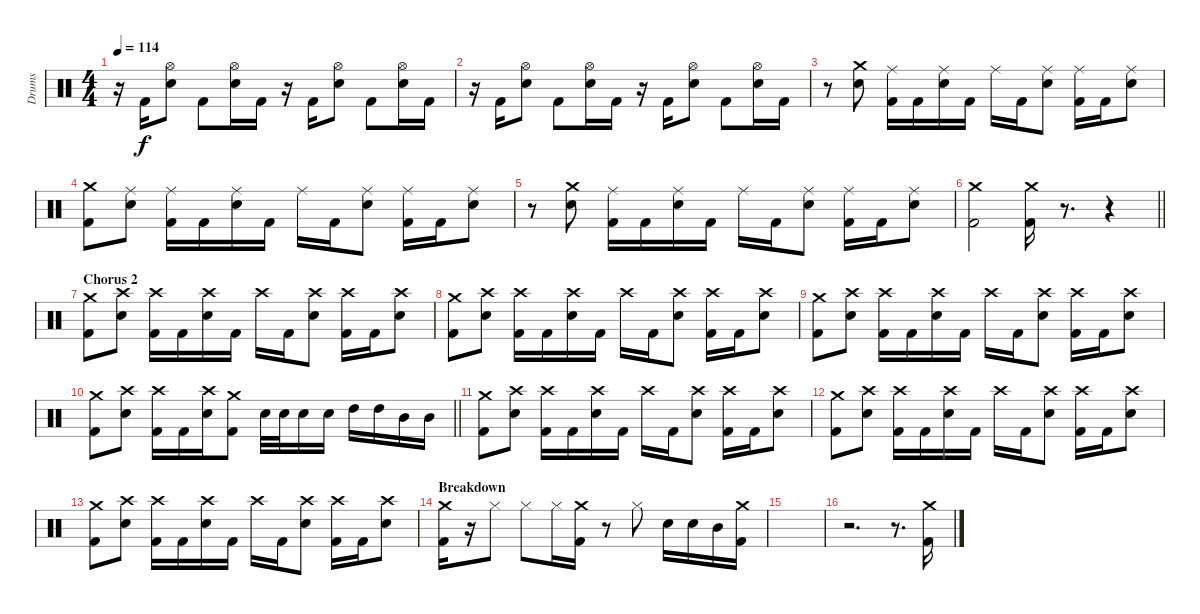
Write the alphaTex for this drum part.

\track ("Drums" "Drums") {instrument percussion}
\staff {score}
\articulation defaults
\ts (4 4)
\tempo 114
\clef neutral
\ks c
r.16{dy f} "Kick (hit) 2".16 ("Hi-Hat (open)" "Electric Snare (hit)").8 "Kick (hit) 2".8 ("Hi-Hat (open)" "Electric Snare (hit)").16 "Kick (hit) 2".16 r.16 "Kick (hit) 2".16 ("Hi-Hat (open)" "Electric Snare (hit)").8 "Kick (hit) 2".8 ("Hi-Hat (open)" "Electric Snare (hit)").16 "Kick (hit) 2".16 |
r.16 "Kick (hit) 2".16 ("Hi-Hat (open)" "Electric Snare (hit)").8 "Kick (hit) 2".8 ("Hi-Hat (open)" "Electric Snare (hit)").16 "Kick (hit) 2".16 r.16 "Kick (hit) 2".16 ("Hi-Hat (open)" "Electric Snare (hit)").8 "Kick (hit) 2".8 ("Hi-Hat (open)" "Electric Snare (hit)").16 "Kick (hit) 2".16 |
r.8 ("Crash medium (hit)" "Electric Snare (hit)").8 ("Ride (middle)" "Kick (hit) 2").16 "Kick (hit) 2".16 ("Ride (middle)" "Electric Snare (hit)").16 "Kick (hit) 2".16 "Ride (middle)".16 "Kick (hit) 2".16 ("Ride (middle)" "Electric Snare (hit)").8 ("Ride (middle)" "Kick (hit) 2").16 "Kick (hit) 2".16 ("Ride (middle)" "Electric Snare (hit)").8 |
("Crash medium (hit)" "Kick (hit) 2").8 ("Ride (middle)" "Electric Snare (hit)").8 ("Ride (middle)" "Kick (hit) 2").16 "Kick (hit) 2".16 ("Ride (middle)" "Electric Snare (hit)").16 "Kick (hit) 2".16 "Ride (middle)".16 "Kick (hit) 2".16 ("Ride (middle)" "Electric Snare (hit)").8 ("Ride (middle)" "Kick (hit) 2").16 "Kick (hit) 2".16 ("Ride (middle)" "Electric Snare (hit)").8 |
r.8 ("Crash medium (hit)" "Electric Snare (hit)").8 ("Ride (middle)" "Kick (hit) 2").16 "Kick (hit) 2".16 ("Ride (middle)" "Electric Snare (hit)").16 "Kick (hit) 2".16 "Ride (middle)".16 "Kick (hit) 2".16 ("Ride (middle)" "Electric Snare (hit)").8 ("Ride (middle)" "Kick (hit) 2").16 "Kick (hit) 2".16 ("Ride (middle)" "Electric Snare (hit)").8 |
\barLineRight lightlight
("Crash medium (hit)" "Kick (hit) 2").2 ("Crash medium (hit)" "Kick (hit) 2").16 r.8{d} r.4 |
\section ("" "Chorus 2")
("Crash medium (hit)" "Kick (hit) 2").8 ("Crash high (hit)" "Electric Snare (hit)").8 ("Crash high (hit)" "Kick (hit) 2").16 "Kick (hit) 2".16 ("Crash high (hit)" "Electric Snare (hit)").16 "Kick (hit) 2".16 "Crash high (hit)".16 "Kick (hit) 2".16 ("Crash high (hit)" "Electric Snare (hit)").8 ("Crash high (hit)" "Kick (hit) 2").16 "Kick (hit) 2".16 ("Crash high (hit)" "Electric Snare (hit)").8 |
("Crash medium (hit)" "Kick (hit) 2").8 ("Crash high (hit)" "Electric Snare (hit)").8 ("Crash high (hit)" "Kick (hit) 2").16 "Kick (hit) 2".16 ("Crash high (hit)" "Electric Snare (hit)").16 "Kick (hit) 2".16 "Crash high (hit)".16 "Kick (hit) 2".16 ("Crash high (hit)" "Electric Snare (hit)").8 ("Crash high (hit)" "Kick (hit) 2").16 "Kick (hit) 2".16 ("Crash high (hit)" "Electric Snare (hit)").8 |
("Crash medium (hit)" "Kick (hit) 2").8 ("Crash high (hit)" "Electric Snare (hit)").8 ("Crash high (hit)" "Kick (hit) 2").16 "Kick (hit) 2".16 ("Crash high (hit)" "Electric Snare (hit)").16 "Kick (hit) 2".16 "Crash high (hit)".16 "Kick (hit) 2".16 ("Crash high (hit)" "Electric Snare (hit)").8 ("Crash high (hit)" "Kick (hit) 2").16 "Kick (hit) 2".16 ("Crash high (hit)" "Electric Snare (hit)").8 |
\barLineRight lightlight
("Crash medium (hit)" "Kick (hit) 2").8 ("Crash high (hit)" "Electric Snare (hit)").8 ("Crash high (hit)" "Kick (hit) 2").16 "Kick (hit) 2".16 ("Crash high (hit)" "Electric Snare (hit)").16 ("Crash medium (hit)" "Kick (hit) 2").8 "Electric Snare (hit)".32 "Electric Snare (hit)".32 "Electric Snare (hit)".16 "Electric Snare (hit)".16 "High Tom (hit)".16 "High Tom (hit)".16 "Mid Tom (hit)".16 "Mid Tom (hit)".16 |
("Crash medium (hit)" "Kick (hit) 2").8 ("Crash high (hit)" "Electric Snare (hit)").8 ("Crash high (hit)" "Kick (hit) 2").16 "Kick (hit) 2".16 ("Crash high (hit)" "Electric Snare (hit)").16 "Kick (hit) 2".16 "Crash high (hit)".16 "Kick (hit) 2".16 ("Crash high (hit)" "Electric Snare (hit)").8 ("Crash high (hit)" "Kick (hit) 2").16 "Kick (hit) 2".16 ("Crash high (hit)" "Electric Snare (hit)").8 |
("Crash medium (hit)" "Kick (hit) 2").8 ("Crash high (hit)" "Electric Snare (hit)").8 ("Crash high (hit)" "Kick (hit) 2").16 "Kick (hit) 2".16 ("Crash high (hit)" "Electric Snare (hit)").16 "Kick (hit) 2".16 "Crash high (hit)".16 "Kick (hit) 2".16 ("Crash high (hit)" "Electric Snare (hit)").8 ("Crash high (hit)" "Kick (hit) 2").16 "Kick (hit) 2".16 ("Crash high (hit)" "Electric Snare (hit)").8 |
("Crash medium (hit)" "Kick (hit) 2").8 ("Crash high (hit)" "Electric Snare (hit)").8 ("Crash high (hit)" "Kick (hit) 2").16 "Kick (hit) 2".16 ("Crash high (hit)" "Electric Snare (hit)").16 "Kick (hit) 2".16 "Crash high (hit)".16 "Kick (hit) 2".16 ("Crash high (hit)" "Electric Snare (hit)").8 ("Crash high (hit)" "Kick (hit) 2").16 "Kick (hit) 2".16 ("Crash high (hit)" "Electric Snare (hit)").8 |
\section ("" "Breakdown")
("Crash medium (hit)" "Kick (hit) 2").16 r.16 "Hi-Hat (closed)".8 "Hi-Hat (closed)".8 "Hi-Hat (closed)".16 ("Crash medium (hit)" "Kick (hit) 2").16 r.8 "Hi-Hat (closed)".8 "Electric Snare (hit)".16 "Electric Snare (hit)".16 "Mid Tom (hit)".16 ("Crash medium (hit)" "Kick (hit) 2").16 |
|
r.2{d} r.8{d} ("Crash medium (hit)" "Kick (hit) 2").16
